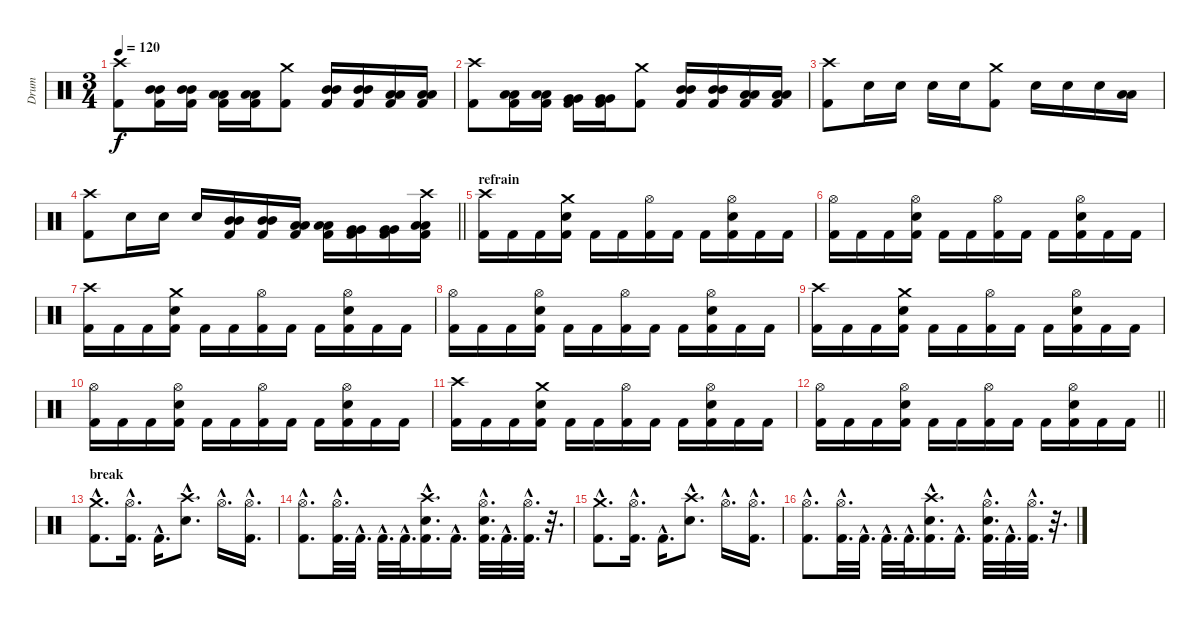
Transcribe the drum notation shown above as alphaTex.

\track ("Drum" "Drum") {instrument percussion}
\staff {score}
\articulation defaults
\ts (3 4)
\tempo 120
\clef neutral
\ks c
("Crash high (hit)" "Kick (hit) 2").8{dy f} ("Mid Tom (hit)" "Mid Tom (hit)" "Kick (hit) 2").16 ("Mid Tom (hit)" "Mid Tom (hit)" "Kick (hit) 2").16 ("Low Tom (hit)" "Low Tom (hit)" "Kick (hit) 2").16 ("Low Tom (hit)" "Low Tom (hit)" "Kick (hit) 2").16 ("Crash medium (hit)" "Kick (hit) 2").8 ("Mid Tom (hit)" "Mid Tom (hit)" "Kick (hit) 2").16 ("Mid Tom (hit)" "Mid Tom (hit)" "Kick (hit) 2").16 ("Low Tom (hit)" "Low Tom (hit)" "Kick (hit) 2").16 ("Low Tom (hit)" "Low Tom (hit)" "Kick (hit) 2").16 |
("Crash high (hit)" "Kick (hit) 2").8 ("Low Tom (hit)" "Low Tom (hit)" "Kick (hit) 2").16 ("Low Tom (hit)" "Low Tom (hit)" "Kick (hit) 2").16 ("Very Low Tom (hit)" "Very Low Tom (hit)" "Kick (hit) 2").16 ("Very Low Tom (hit)" "Very Low Tom (hit)" "Kick (hit) 2").16 ("Crash medium (hit)" "Kick (hit) 2").8 ("Mid Tom (hit)" "Mid Tom (hit)" "Kick (hit) 2").16 ("Mid Tom (hit)" "Mid Tom (hit)" "Kick (hit) 2").16 ("Low Tom (hit)" "Low Tom (hit)" "Kick (hit) 2").16 ("Low Tom (hit)" "Low Tom (hit)" "Kick (hit) 2").16 |
("Crash high (hit)" "Kick (hit) 2").8 "Snare (hit) 2".16 "Snare (hit) 2".16 "Snare (hit) 2".16 "Snare (hit) 2".16 ("Crash medium (hit)" "Kick (hit) 2").8 "Snare (hit) 2".16 "Snare (hit) 2".16 "Snare (hit) 2".16 ("Low Tom (hit)" "Low Tom (hit)").16 |
\barLineRight lightlight
("Crash high (hit)" "Kick (hit) 2").8 "Snare (hit) 2".16 "Snare (hit) 2".16 "Snare (hit) 2".16 ("Mid Tom (hit)" "Mid Tom (hit)" "Kick (hit) 2").16 ("Mid Tom (hit)" "Mid Tom (hit)" "Kick (hit) 2").16 ("Low Tom (hit)" "Low Tom (hit)" "Kick (hit) 2").16 ("Low Tom (hit)" "Low Tom (hit)" "Kick (hit) 2").16 ("Very Low Tom (hit)" "Very Low Tom (hit)" "Kick (hit) 2").16 ("Very Low Tom (hit)" "Very Low Tom (hit)" "Kick (hit) 2").16 ("Crash high (hit)" "Low Floor Tom (hit)" "Low Floor Tom (hit)" "Kick (hit) 2").16 |
\section ("" "refrain")
("Crash high (hit)" "Kick (hit) 2").16 "Kick (hit) 2".16 "Kick (hit) 2".16 ("Crash medium (hit)" "Snare (hit) 2" "Kick (hit) 2").16 "Kick (hit) 2".16 "Kick (hit) 2".16 ("Hi-Hat (open)" "Kick (hit) 2").16 "Kick (hit) 2".16 "Kick (hit) 2".16 ("Hi-Hat (open)" "Snare (hit) 2" "Kick (hit) 2").16 "Kick (hit) 2".16 "Kick (hit) 2".16 |
("Hi-Hat (open)" "Kick (hit) 2").16 "Kick (hit) 2".16 "Kick (hit) 2".16 ("Hi-Hat (open)" "Snare (hit) 2" "Kick (hit) 2").16 "Kick (hit) 2".16 "Kick (hit) 2".16 ("Hi-Hat (open)" "Kick (hit) 2").16 "Kick (hit) 2".16 "Kick (hit) 2".16 ("Hi-Hat (open)" "Snare (hit) 2" "Kick (hit) 2").16 "Kick (hit) 2".16 "Kick (hit) 2".16 |
("Crash high (hit)" "Kick (hit) 2").16 "Kick (hit) 2".16 "Kick (hit) 2".16 ("Crash medium (hit)" "Snare (hit) 2" "Kick (hit) 2").16 "Kick (hit) 2".16 "Kick (hit) 2".16 ("Hi-Hat (open)" "Kick (hit) 2").16 "Kick (hit) 2".16 "Kick (hit) 2".16 ("Hi-Hat (open)" "Snare (hit) 2" "Kick (hit) 2").16 "Kick (hit) 2".16 "Kick (hit) 2".16 |
("Hi-Hat (open)" "Kick (hit) 2").16 "Kick (hit) 2".16 "Kick (hit) 2".16 ("Hi-Hat (open)" "Snare (hit) 2" "Kick (hit) 2").16 "Kick (hit) 2".16 "Kick (hit) 2".16 ("Hi-Hat (open)" "Kick (hit) 2").16 "Kick (hit) 2".16 "Kick (hit) 2".16 ("Hi-Hat (open)" "Snare (hit) 2" "Kick (hit) 2").16 "Kick (hit) 2".16 "Kick (hit) 2".16 |
("Crash high (hit)" "Kick (hit) 2").16 "Kick (hit) 2".16 "Kick (hit) 2".16 ("Crash medium (hit)" "Snare (hit) 2" "Kick (hit) 2").16 "Kick (hit) 2".16 "Kick (hit) 2".16 ("Hi-Hat (open)" "Kick (hit) 2").16 "Kick (hit) 2".16 "Kick (hit) 2".16 ("Hi-Hat (open)" "Snare (hit) 2" "Kick (hit) 2").16 "Kick (hit) 2".16 "Kick (hit) 2".16 |
("Hi-Hat (open)" "Kick (hit) 2").16 "Kick (hit) 2".16 "Kick (hit) 2".16 ("Hi-Hat (open)" "Snare (hit) 2" "Kick (hit) 2").16 "Kick (hit) 2".16 "Kick (hit) 2".16 ("Hi-Hat (open)" "Kick (hit) 2").16 "Kick (hit) 2".16 "Kick (hit) 2".16 ("Hi-Hat (open)" "Snare (hit) 2" "Kick (hit) 2").16 "Kick (hit) 2".16 "Kick (hit) 2".16 |
("Crash high (hit)" "Kick (hit) 2").16 "Kick (hit) 2".16 "Kick (hit) 2".16 ("Crash medium (hit)" "Snare (hit) 2" "Kick (hit) 2").16 "Kick (hit) 2".16 "Kick (hit) 2".16 ("Hi-Hat (open)" "Kick (hit) 2").16 "Kick (hit) 2".16 "Kick (hit) 2".16 ("Hi-Hat (open)" "Snare (hit) 2" "Kick (hit) 2").16 "Kick (hit) 2".16 "Kick (hit) 2".16 |
\barLineRight lightlight
("Hi-Hat (open)" "Kick (hit) 2").16 "Kick (hit) 2".16 "Kick (hit) 2".16 ("Hi-Hat (open)" "Snare (hit) 2" "Kick (hit) 2").16 "Kick (hit) 2".16 "Kick (hit) 2".16 ("Hi-Hat (open)" "Kick (hit) 2").16 "Kick (hit) 2".16 "Kick (hit) 2".16 ("Hi-Hat (open)" "Snare (hit) 2" "Kick (hit) 2").16 "Kick (hit) 2".16 "Kick (hit) 2".16 |
\section ("" "break")
("Crash medium (hit)"{hac} "Kick (hit) 2"{hac}).8{d} ("Hi-Hat (open)"{hac} "Kick (hit) 2"{hac}).16{d} "Kick (hit) 2"{hac}.16{d} ("Crash high (hit)"{hac} "Snare (hit) 2"{hac}).8{d} "Hi-Hat (open)"{hac}.16{d} ("Hi-Hat (open)"{hac} "Kick (hit) 2"{hac}).16{d} |
("Hi-Hat (open)"{hac} "Kick (hit) 2"{hac}).8{d} ("Hi-Hat (open)"{hac} "Kick (hit) 2"{hac}).32{d} "Kick (hit) 2"{hac}.32{d} "Kick (hit) 2"{hac}.32{d} "Kick (hit) 2"{hac}.32{d} ("Crash high (hit)"{hac} "Snare (hit) 2"{hac} "Kick (hit) 2"{hac}).16{d} "Kick (hit) 2"{hac}.16{d} ("Hi-Hat (open)"{hac} "Snare (hit) 2"{hac} "Kick (hit) 2"{hac}).32{d} "Kick (hit) 2"{hac}.32{d} ("Hi-Hat (open)"{hac} "Kick (hit) 2"{hac}).32{d} r.32{d} |
("Crash medium (hit)"{hac} "Kick (hit) 2"{hac}).8{d} ("Hi-Hat (open)"{hac} "Kick (hit) 2"{hac}).16{d} "Kick (hit) 2"{hac}.16{d} ("Crash high (hit)"{hac} "Snare (hit) 2"{hac}).8{d} "Hi-Hat (open)"{hac}.16{d} ("Hi-Hat (open)"{hac} "Kick (hit) 2"{hac}).16{d} |
("Hi-Hat (open)"{hac} "Kick (hit) 2"{hac}).8{d} ("Hi-Hat (open)"{hac} "Kick (hit) 2"{hac}).32{d} "Kick (hit) 2"{hac}.32{d} "Kick (hit) 2"{hac}.32{d} "Kick (hit) 2"{hac}.32{d} ("Crash high (hit)"{hac} "Snare (hit) 2"{hac} "Kick (hit) 2"{hac}).16{d} "Kick (hit) 2"{hac}.16{d} ("Hi-Hat (open)"{hac} "Snare (hit) 2"{hac} "Kick (hit) 2"{hac}).32{d} "Kick (hit) 2"{hac}.32{d} ("Hi-Hat (open)"{hac} "Kick (hit) 2"{hac}).32{d} r.32{d}
